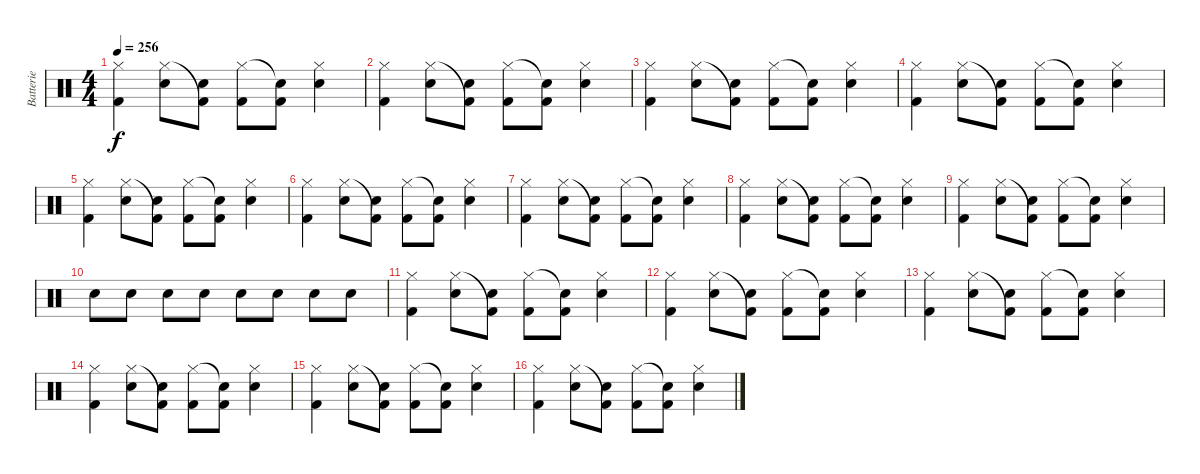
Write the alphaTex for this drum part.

\track ("Batterie" "Batterie") {instrument percussion}
\staff {score}
\articulation defaults
\ts (4 4)
\tempo 256
\clef neutral
\ks c
("Hi-Hat (closed)" "Kick (hit) 2").4{dy f} ("Hi-Hat (closed)" "Snare (hit) 2").8 ("Kick (hit) 2"{t} "Snare (hit) 2").8 ("Hi-Hat (closed)" "Kick (hit) 2").8 ("Snare (hit)"{t} "Kick (hit) 2").8 ("Hi-Hat (closed)" "Snare (hit) 2").4 |
("Hi-Hat (closed)" "Kick (hit) 2").4 ("Hi-Hat (closed)" "Snare (hit) 2").8 ("Kick (hit) 2"{t} "Snare (hit) 2").8 ("Hi-Hat (closed)" "Kick (hit) 2").8 ("Snare (hit)"{t} "Kick (hit) 2").8 ("Hi-Hat (closed)" "Snare (hit) 2").4 |
("Hi-Hat (closed)" "Kick (hit) 2").4 ("Hi-Hat (closed)" "Snare (hit) 2").8 ("Kick (hit) 2"{t} "Snare (hit) 2").8 ("Hi-Hat (closed)" "Kick (hit) 2").8 ("Snare (hit)"{t} "Kick (hit) 2").8 ("Hi-Hat (closed)" "Snare (hit) 2").4 |
("Hi-Hat (closed)" "Kick (hit) 2").4 ("Hi-Hat (closed)" "Snare (hit) 2").8 ("Kick (hit) 2"{t} "Snare (hit) 2").8 ("Hi-Hat (closed)" "Kick (hit) 2").8 ("Snare (hit)"{t} "Kick (hit) 2").8 ("Hi-Hat (closed)" "Snare (hit) 2").4 |
("Hi-Hat (closed)" "Kick (hit) 2").4 ("Hi-Hat (closed)" "Snare (hit) 2").8 ("Kick (hit) 2"{t} "Snare (hit) 2").8 ("Hi-Hat (closed)" "Kick (hit) 2").8 ("Snare (hit)"{t} "Kick (hit) 2").8 ("Hi-Hat (closed)" "Snare (hit) 2").4 |
("Hi-Hat (closed)" "Kick (hit) 2").4 ("Hi-Hat (closed)" "Snare (hit) 2").8 ("Kick (hit) 2"{t} "Snare (hit) 2").8 ("Hi-Hat (closed)" "Kick (hit) 2").8 ("Snare (hit)"{t} "Kick (hit) 2").8 ("Hi-Hat (closed)" "Snare (hit) 2").4 |
("Hi-Hat (closed)" "Kick (hit) 2").4 ("Hi-Hat (closed)" "Snare (hit) 2").8 ("Kick (hit) 2"{t} "Snare (hit) 2").8 ("Hi-Hat (closed)" "Kick (hit) 2").8 ("Snare (hit)"{t} "Kick (hit) 2").8 ("Hi-Hat (closed)" "Snare (hit) 2").4 |
("Hi-Hat (closed)" "Kick (hit) 2").4 ("Hi-Hat (closed)" "Snare (hit) 2").8 ("Kick (hit) 2"{t} "Snare (hit) 2").8 ("Hi-Hat (closed)" "Kick (hit) 2").8 ("Snare (hit)"{t} "Kick (hit) 2").8 ("Hi-Hat (closed)" "Snare (hit) 2").4 |
("Hi-Hat (closed)" "Kick (hit) 2").4 ("Hi-Hat (closed)" "Snare (hit) 2").8 ("Kick (hit) 2"{t} "Snare (hit) 2").8 ("Hi-Hat (closed)" "Kick (hit) 2").8 ("Snare (hit)"{t} "Kick (hit) 2").8 ("Hi-Hat (closed)" "Snare (hit) 2").4 |
"Snare (hit) 2".8 "Snare (hit) 2".8 "Snare (hit) 2".8 "Snare (hit) 2".8 "Snare (hit) 2".8 "Snare (hit) 2".8 "Snare (hit) 2".8 "Snare (hit) 2".8 |
("Hi-Hat (closed)" "Kick (hit) 2").4 ("Hi-Hat (closed)" "Snare (hit) 2").8 ("Kick (hit) 2"{t} "Snare (hit) 2").8 ("Hi-Hat (closed)" "Kick (hit) 2").8 ("Snare (hit)"{t} "Kick (hit) 2").8 ("Hi-Hat (closed)" "Snare (hit) 2").4 |
("Hi-Hat (closed)" "Kick (hit) 2").4 ("Hi-Hat (closed)" "Snare (hit) 2").8 ("Kick (hit) 2"{t} "Snare (hit) 2").8 ("Hi-Hat (closed)" "Kick (hit) 2").8 ("Snare (hit)"{t} "Kick (hit) 2").8 ("Hi-Hat (closed)" "Snare (hit) 2").4 |
("Hi-Hat (closed)" "Kick (hit) 2").4 ("Hi-Hat (closed)" "Snare (hit) 2").8 ("Kick (hit) 2"{t} "Snare (hit) 2").8 ("Hi-Hat (closed)" "Kick (hit) 2").8 ("Snare (hit)"{t} "Kick (hit) 2").8 ("Hi-Hat (closed)" "Snare (hit) 2").4 |
("Hi-Hat (closed)" "Kick (hit) 2").4 ("Hi-Hat (closed)" "Snare (hit) 2").8 ("Kick (hit) 2"{t} "Snare (hit) 2").8 ("Hi-Hat (closed)" "Kick (hit) 2").8 ("Snare (hit)"{t} "Kick (hit) 2").8 ("Hi-Hat (closed)" "Snare (hit) 2").4 |
("Hi-Hat (closed)" "Kick (hit) 2").4 ("Hi-Hat (closed)" "Snare (hit) 2").8 ("Kick (hit) 2"{t} "Snare (hit) 2").8 ("Hi-Hat (closed)" "Kick (hit) 2").8 ("Snare (hit)"{t} "Kick (hit) 2").8 ("Hi-Hat (closed)" "Snare (hit) 2").4 |
("Hi-Hat (closed)" "Kick (hit) 2").4 ("Hi-Hat (closed)" "Snare (hit) 2").8 ("Kick (hit) 2"{t} "Snare (hit) 2").8 ("Hi-Hat (closed)" "Kick (hit) 2").8 ("Snare (hit)"{t} "Kick (hit) 2").8 ("Hi-Hat (closed)" "Snare (hit) 2").4
